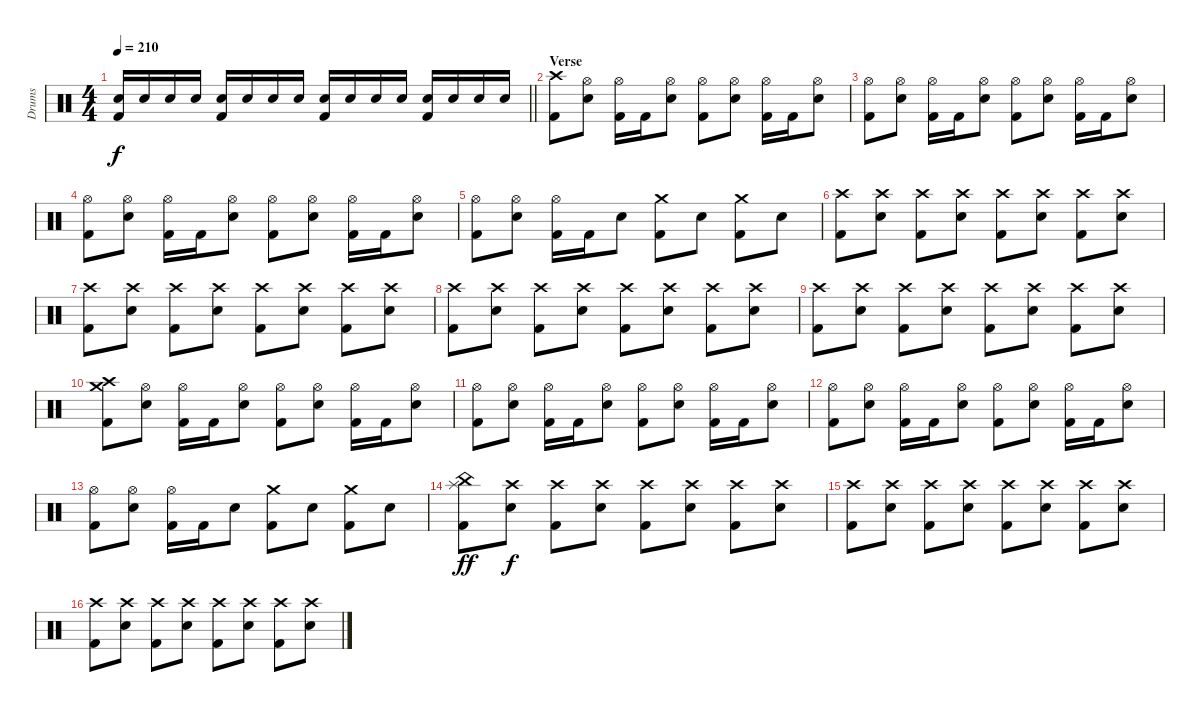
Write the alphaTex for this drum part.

\track ("Drums" "Drums") {instrument percussion}
\staff {score}
\articulation defaults
\ts (4 4)
\tempo 210
\clef neutral
\barLineRight lightlight
\ks c
("Kick (hit) 2" "Electric Snare (hit)").16{dy f} "Electric Snare (hit)".16 "Electric Snare (hit)".16 "Electric Snare (hit)".16 ("Kick (hit) 2" "Electric Snare (hit)").16 "Electric Snare (hit)".16 "Electric Snare (hit)".16 "Electric Snare (hit)".16 ("Kick (hit) 2" "Electric Snare (hit)").16 "Electric Snare (hit)".16 "Electric Snare (hit)".16 "Electric Snare (hit)".16 ("Kick (hit) 2" "Electric Snare (hit)").16 "Electric Snare (hit)".16 "Electric Snare (hit)".16 "Electric Snare (hit)".16 |
\section ("" "Verse")
("Kick (hit) 2" "Crash high (hit)").8 ("Electric Snare (hit)" "Hi-Hat (open)").8 ("Kick (hit) 2" "Hi-Hat (open)").16 "Kick (hit) 2".16 ("Electric Snare (hit)" "Hi-Hat (open)").8 ("Kick (hit) 2" "Hi-Hat (open)").8 ("Electric Snare (hit)" "Hi-Hat (open)").8 ("Kick (hit) 2" "Hi-Hat (open)").16 "Kick (hit) 2".16 ("Electric Snare (hit)" "Hi-Hat (open)").8 |
("Kick (hit) 2" "Hi-Hat (open)").8 ("Electric Snare (hit)" "Hi-Hat (open)").8 ("Kick (hit) 2" "Hi-Hat (open)").16 "Kick (hit) 2".16 ("Electric Snare (hit)" "Hi-Hat (open)").8 ("Kick (hit) 2" "Hi-Hat (open)").8 ("Electric Snare (hit)" "Hi-Hat (open)").8 ("Kick (hit) 2" "Hi-Hat (open)").16 "Kick (hit) 2".16 ("Electric Snare (hit)" "Hi-Hat (open)").8 |
("Kick (hit) 2" "Hi-Hat (open)").8 ("Electric Snare (hit)" "Hi-Hat (open)").8 ("Kick (hit) 2" "Hi-Hat (open)").16 "Kick (hit) 2".16 ("Electric Snare (hit)" "Hi-Hat (open)").8 ("Kick (hit) 2" "Hi-Hat (open)").8 ("Electric Snare (hit)" "Hi-Hat (open)").8 ("Kick (hit) 2" "Hi-Hat (open)").16 "Kick (hit) 2".16 ("Electric Snare (hit)" "Hi-Hat (open)").8 |
("Kick (hit) 2" "Hi-Hat (open)").8 ("Electric Snare (hit)" "Hi-Hat (open)").8 ("Kick (hit) 2" "Hi-Hat (open)").16 "Kick (hit) 2".16 "Electric Snare (hit)".8 ("Kick (hit) 2" "Crash medium (hit)").8 "Electric Snare (hit)".8 ("Kick (hit) 2" "Crash medium (hit)").8 "Electric Snare (hit)".8 |
("Kick (hit) 2" "Crash high (hit)").8 ("Electric Snare (hit)" "Crash high (hit)").8 ("Kick (hit) 2" "Crash high (hit)").8 ("Electric Snare (hit)" "Crash high (hit)").8 ("Kick (hit) 2" "Crash high (hit)").8 ("Electric Snare (hit)" "Crash high (hit)").8 ("Kick (hit) 2" "Crash high (hit)").8 ("Electric Snare (hit)" "Crash high (hit)").8 |
("Kick (hit) 2" "Crash high (hit)").8 ("Electric Snare (hit)" "Crash high (hit)").8 ("Kick (hit) 2" "Crash high (hit)").8 ("Electric Snare (hit)" "Crash high (hit)").8 ("Kick (hit) 2" "Crash high (hit)").8 ("Electric Snare (hit)" "Crash high (hit)").8 ("Kick (hit) 2" "Crash high (hit)").8 ("Electric Snare (hit)" "Crash high (hit)").8 |
("Kick (hit) 2" "Crash high (hit)").8 ("Electric Snare (hit)" "Crash high (hit)").8 ("Kick (hit) 2" "Crash high (hit)").8 ("Electric Snare (hit)" "Crash high (hit)").8 ("Kick (hit) 2" "Crash high (hit)").8 ("Electric Snare (hit)" "Crash high (hit)").8 ("Kick (hit) 2" "Crash high (hit)").8 ("Electric Snare (hit)" "Crash high (hit)").8 |
("Kick (hit) 2" "Crash high (hit)").8 ("Electric Snare (hit)" "Crash high (hit)").8 ("Kick (hit) 2" "Crash high (hit)").8 ("Electric Snare (hit)" "Crash high (hit)").8 ("Kick (hit) 2" "Crash high (hit)").8 ("Electric Snare (hit)" "Crash high (hit)").8 ("Kick (hit) 2" "Crash high (hit)").8 ("Electric Snare (hit)" "Crash high (hit)").8 |
("Kick (hit) 2" "Crash high (hit)" "Crash medium (hit)").8 ("Electric Snare (hit)" "Hi-Hat (open)").8 ("Kick (hit) 2" "Hi-Hat (open)").16 "Kick (hit) 2".16 ("Electric Snare (hit)" "Hi-Hat (open)").8 ("Kick (hit) 2" "Hi-Hat (open)").8 ("Electric Snare (hit)" "Hi-Hat (open)").8 ("Kick (hit) 2" "Hi-Hat (open)").16 "Kick (hit) 2".16 ("Electric Snare (hit)" "Hi-Hat (open)").8 |
("Kick (hit) 2" "Hi-Hat (open)").8 ("Electric Snare (hit)" "Hi-Hat (open)").8 ("Kick (hit) 2" "Hi-Hat (open)").16 "Kick (hit) 2".16 ("Electric Snare (hit)" "Hi-Hat (open)").8 ("Kick (hit) 2" "Hi-Hat (open)").8 ("Electric Snare (hit)" "Hi-Hat (open)").8 ("Kick (hit) 2" "Hi-Hat (open)").16 "Kick (hit) 2".16 ("Electric Snare (hit)" "Hi-Hat (open)").8 |
("Kick (hit) 2" "Hi-Hat (open)").8 ("Electric Snare (hit)" "Hi-Hat (open)").8 ("Kick (hit) 2" "Hi-Hat (open)").16 "Kick (hit) 2".16 ("Electric Snare (hit)" "Hi-Hat (open)").8 ("Kick (hit) 2" "Hi-Hat (open)").8 ("Electric Snare (hit)" "Hi-Hat (open)").8 ("Kick (hit) 2" "Hi-Hat (open)").16 "Kick (hit) 2".16 ("Electric Snare (hit)" "Hi-Hat (open)").8 |
("Kick (hit) 2" "Hi-Hat (open)").8 ("Electric Snare (hit)" "Hi-Hat (open)").8 ("Kick (hit) 2" "Hi-Hat (open)").16 "Kick (hit) 2".16 "Electric Snare (hit)".8 ("Kick (hit) 2" "Crash medium (hit)").8 "Electric Snare (hit)".8 ("Kick (hit) 2" "Crash medium (hit)").8 "Electric Snare (hit)".8 |
("Kick (hit) 2" "Splash (hit)" "China (hit)").8{dy ff} ("Electric Snare (hit)" "Crash high (hit)").8{dy f} ("Kick (hit) 2" "Crash high (hit)").8 ("Electric Snare (hit)" "Crash high (hit)").8 ("Kick (hit) 2" "Crash high (hit)").8 ("Electric Snare (hit)" "Crash high (hit)").8 ("Kick (hit) 2" "Crash high (hit)").8 ("Electric Snare (hit)" "Crash high (hit)").8 |
("Kick (hit) 2" "Crash high (hit)").8 ("Electric Snare (hit)" "Crash high (hit)").8 ("Kick (hit) 2" "Crash high (hit)").8 ("Electric Snare (hit)" "Crash high (hit)").8 ("Kick (hit) 2" "Crash high (hit)").8 ("Electric Snare (hit)" "Crash high (hit)").8 ("Kick (hit) 2" "Crash high (hit)").8 ("Electric Snare (hit)" "Crash high (hit)").8 |
("Kick (hit) 2" "Crash high (hit)").8 ("Electric Snare (hit)" "Crash high (hit)").8 ("Kick (hit) 2" "Crash high (hit)").8 ("Electric Snare (hit)" "Crash high (hit)").8 ("Kick (hit) 2" "Crash high (hit)").8 ("Electric Snare (hit)" "Crash high (hit)").8 ("Kick (hit) 2" "Crash high (hit)").8 ("Electric Snare (hit)" "Crash high (hit)").8
